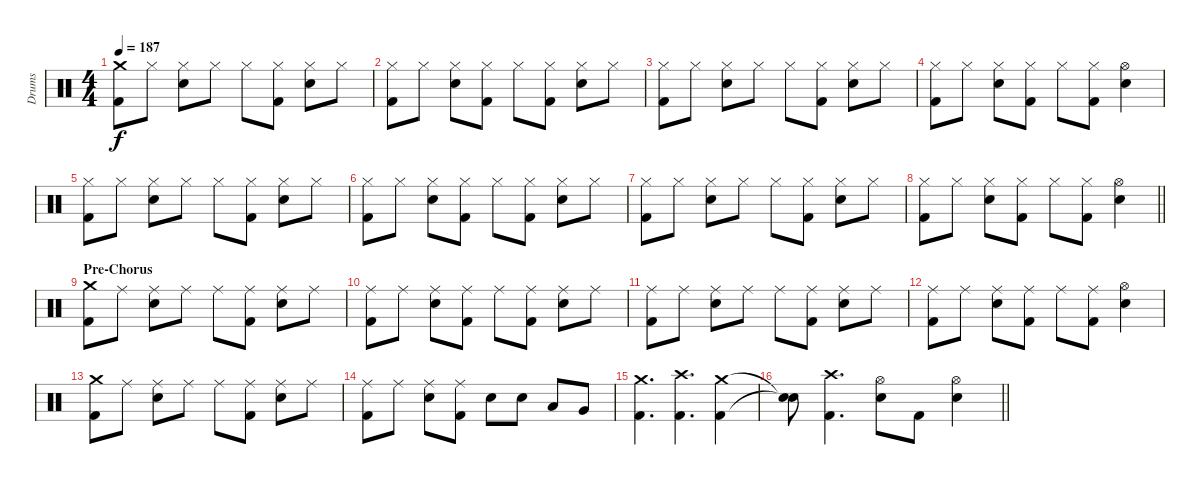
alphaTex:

\track ("Drums" "Drums") {instrument percussion}
\staff {score}
\articulation defaults
\ts (4 4)
\tempo 187
\clef neutral
\ks c
("Crash medium (hit)" "Kick (hit) 2").8{dy f} "Hi-Hat (closed)".8 ("Hi-Hat (closed)" "Electric Snare (hit)").8 "Hi-Hat (closed)".8 "Hi-Hat (closed)".8 ("Hi-Hat (closed)" "Kick (hit) 2").8 ("Hi-Hat (closed)" "Electric Snare (hit)").8 "Hi-Hat (closed)".8 |
("Hi-Hat (closed)" "Kick (hit) 2").8 "Hi-Hat (closed)".8 ("Hi-Hat (closed)" "Electric Snare (hit)").8 ("Hi-Hat (closed)" "Kick (hit) 2").8 "Hi-Hat (closed)".8 ("Hi-Hat (closed)" "Kick (hit) 2").8 ("Hi-Hat (closed)" "Electric Snare (hit)").8 "Hi-Hat (closed)".8 |
("Hi-Hat (closed)" "Kick (hit) 2").8 "Hi-Hat (closed)".8 ("Hi-Hat (closed)" "Electric Snare (hit)").8 "Hi-Hat (closed)".8 "Hi-Hat (closed)".8 ("Hi-Hat (closed)" "Kick (hit) 2").8 ("Hi-Hat (closed)" "Electric Snare (hit)").8 "Hi-Hat (closed)".8 |
("Hi-Hat (closed)" "Kick (hit) 2").8 "Hi-Hat (closed)".8 ("Hi-Hat (closed)" "Electric Snare (hit)").8 ("Hi-Hat (closed)" "Kick (hit) 2").8 "Hi-Hat (closed)".8 ("Hi-Hat (closed)" "Kick (hit) 2").8 ("Hi-Hat (open)" "Electric Snare (hit)").4 |
("Hi-Hat (closed)" "Kick (hit) 2").8 "Hi-Hat (closed)".8 ("Hi-Hat (closed)" "Electric Snare (hit)").8 "Hi-Hat (closed)".8 "Hi-Hat (closed)".8 ("Hi-Hat (closed)" "Kick (hit) 2").8 ("Hi-Hat (closed)" "Electric Snare (hit)").8 "Hi-Hat (closed)".8 |
("Hi-Hat (closed)" "Kick (hit) 2").8 "Hi-Hat (closed)".8 ("Hi-Hat (closed)" "Electric Snare (hit)").8 ("Hi-Hat (closed)" "Kick (hit) 2").8 "Hi-Hat (closed)".8 ("Hi-Hat (closed)" "Kick (hit) 2").8 ("Hi-Hat (closed)" "Electric Snare (hit)").8 "Hi-Hat (closed)".8 |
("Hi-Hat (closed)" "Kick (hit) 2").8 "Hi-Hat (closed)".8 ("Hi-Hat (closed)" "Electric Snare (hit)").8 "Hi-Hat (closed)".8 "Hi-Hat (closed)".8 ("Hi-Hat (closed)" "Kick (hit) 2").8 ("Hi-Hat (closed)" "Electric Snare (hit)").8 "Hi-Hat (closed)".8 |
\barLineRight lightlight
("Hi-Hat (closed)" "Kick (hit) 2").8 "Hi-Hat (closed)".8 ("Hi-Hat (closed)" "Electric Snare (hit)").8 ("Hi-Hat (closed)" "Kick (hit) 2").8 "Hi-Hat (closed)".8 ("Hi-Hat (closed)" "Kick (hit) 2").8 ("Hi-Hat (open)" "Electric Snare (hit)").4 |
\section ("" "Pre-Chorus")
("Crash medium (hit)" "Kick (hit) 2").8 "Ride (middle)".8 ("Ride (middle)" "Electric Snare (hit)").8 "Ride (middle)".8 "Ride (middle)".8 ("Ride (middle)" "Kick (hit) 2").8 ("Ride (middle)" "Electric Snare (hit)").8 "Ride (middle)".8 |
("Ride (middle)" "Kick (hit) 2").8 "Ride (middle)".8 ("Ride (middle)" "Electric Snare (hit)").8 ("Ride (middle)" "Kick (hit) 2").8 "Ride (middle)".8 ("Ride (middle)" "Kick (hit) 2").8 ("Ride (middle)" "Electric Snare (hit)").8 "Ride (middle)".8 |
("Ride (middle)" "Kick (hit) 2").8 "Ride (middle)".8 ("Ride (middle)" "Electric Snare (hit)").8 "Ride (middle)".8 "Ride (middle)".8 ("Ride (middle)" "Kick (hit) 2").8 ("Ride (middle)" "Electric Snare (hit)").8 "Ride (middle)".8 |
("Ride (middle)" "Kick (hit) 2").8 "Ride (middle)".8 ("Ride (middle)" "Electric Snare (hit)").8 ("Ride (middle)" "Kick (hit) 2").8 "Ride (middle)".8 ("Ride (middle)" "Kick (hit) 2").8 ("Hi-Hat (open)" "Electric Snare (hit)").4 |
("Crash medium (hit)" "Kick (hit) 2").8 "Ride (middle)".8 ("Ride (middle)" "Electric Snare (hit)").8 "Ride (middle)".8 "Ride (middle)".8 ("Ride (middle)" "Kick (hit) 2").8 ("Ride (middle)" "Electric Snare (hit)").8 "Ride (middle)".8 |
("Ride (middle)" "Kick (hit) 2").8 "Ride (middle)".8 ("Ride (middle)" "Electric Snare (hit)").8 ("Ride (middle)" "Kick (hit) 2").8 "Electric Snare (hit)".8 "Electric Snare (hit)".8 "Low Tom (hit)".8 "Very Low Tom (hit)".8 |
("Crash medium (hit)" "Kick (hit) 2").4{d} ("Crash high (hit)" "Kick (hit) 2").4{d} ("Crash medium (hit)" "Kick (hit) 2").4 |
\barLineRight lightlight
("Snare (hit)"{t} "Snare (hit)"{t}).8 ("Crash high (hit)" "Kick (hit) 2").4{d} ("Hi-Hat (open)" "Electric Snare (hit)").8 "Kick (hit) 2".8 ("Hi-Hat (open)" "Electric Snare (hit)").4
